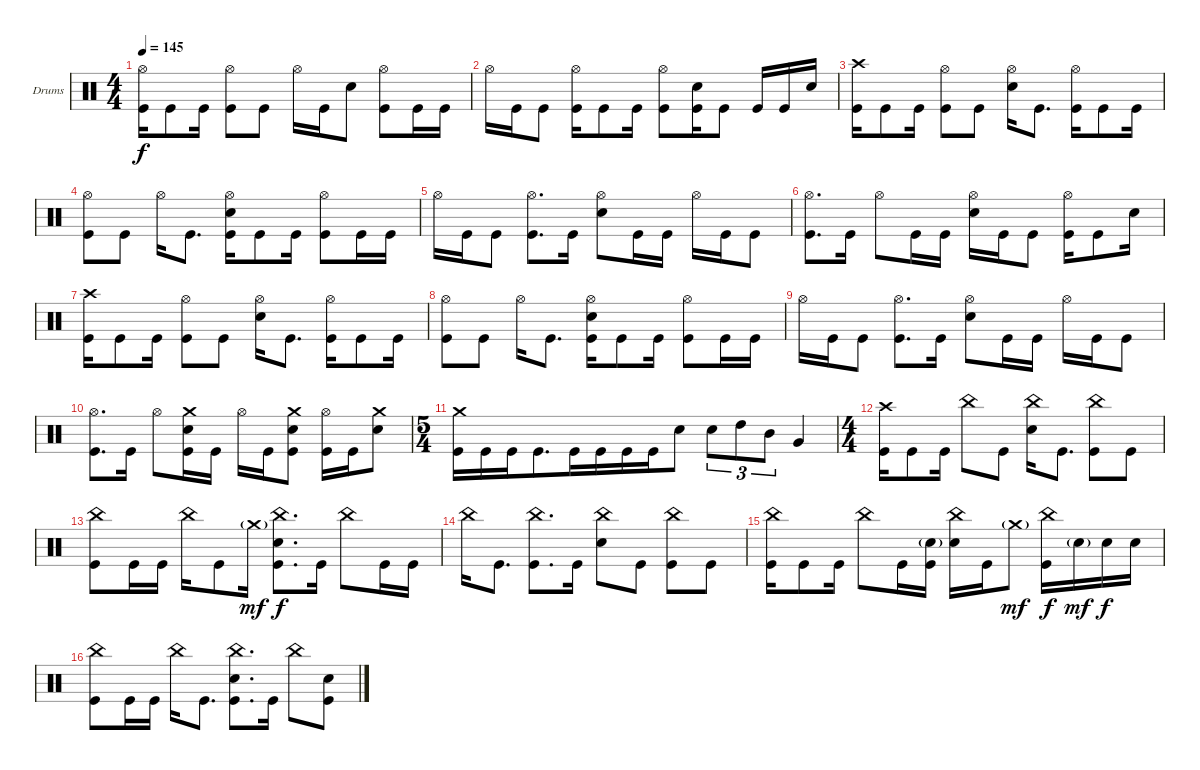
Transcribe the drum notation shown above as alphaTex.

\bracketExtendMode groupsimilarinstruments
\firstSystemTrackNameOrientation horizontal
\otherSystemsTrackNameOrientation horizontal
\track ("Drumkit" "Drums") {instrument percussion}
\staff {score}
\articulation defaults
\ts (4 4)
\tempo 145
\clef neutral
\ks c
("Hi-Hat (open)" "Kick (hit)").16{dy f} "Kick (hit)".8 "Kick (hit)".16 ("Hi-Hat (open)" "Kick (hit)").8 "Kick (hit)".8 "Hi-Hat (open)".16 "Kick (hit)".16 "Snare (hit) 2".8 ("Hi-Hat (open)" "Kick (hit)").8 "Kick (hit)".16 "Kick (hit)".16 |
"Hi-Hat (open)".16 "Kick (hit)".16 "Kick (hit)".8 ("Hi-Hat (open)" "Kick (hit)").16 "Kick (hit)".8 "Kick (hit)".16 ("Hi-Hat (open)" "Kick (hit)").8 ("Snare (hit) 2" "Kick (hit)").16 "Kick (hit)".8 "Kick (hit)".16 "Kick (hit)".16 "Snare (hit) 2".16 |
("Crash high (hit)" "Kick (hit)").16 "Kick (hit)".8 "Kick (hit)".16 ("Hi-Hat (open)" "Kick (hit)").8 "Kick (hit)".8 ("Hi-Hat (open)" "Snare (hit) 2").16 "Kick (hit)".8{d} ("Hi-Hat (open)" "Kick (hit)").16 "Kick (hit)".8 "Kick (hit)".16 |
("Hi-Hat (open)" "Kick (hit)").8 "Kick (hit)".8 "Hi-Hat (open)".16 "Kick (hit)".8{d} ("Hi-Hat (open)" "Snare (hit) 2" "Kick (hit)").16 "Kick (hit)".8 "Kick (hit)".16 ("Hi-Hat (open)" "Kick (hit)").8 "Kick (hit)".16 "Kick (hit)".16 |
"Hi-Hat (open)".16 "Kick (hit)".16 "Kick (hit)".8 ("Hi-Hat (open)" "Kick (hit)").8{d} "Kick (hit)".16 ("Hi-Hat (open)" "Snare (hit) 2").8 "Kick (hit)".16 "Kick (hit)".16 "Hi-Hat (open)".16 "Kick (hit)".16 "Kick (hit)".8 |
("Hi-Hat (open)" "Kick (hit)").8{d} "Kick (hit)".16 "Hi-Hat (open)".8 "Kick (hit)".16 "Kick (hit)".16 ("Hi-Hat (open)" "Snare (hit) 2").16 "Kick (hit)".16 "Kick (hit)".8 ("Hi-Hat (open)" "Kick (hit)").16 "Kick (hit)".8 "Snare (hit) 2".16 |
("Crash high (hit)" "Kick (hit)").16 "Kick (hit)".8 "Kick (hit)".16 ("Hi-Hat (open)" "Kick (hit)").8 "Kick (hit)".8 ("Hi-Hat (open)" "Snare (hit) 2").16 "Kick (hit)".8{d} ("Hi-Hat (open)" "Kick (hit)").16 "Kick (hit)".8 "Kick (hit)".16 |
("Hi-Hat (open)" "Kick (hit)").8 "Kick (hit)".8 "Hi-Hat (open)".16 "Kick (hit)".8{d} ("Hi-Hat (open)" "Snare (hit) 2" "Kick (hit)").16 "Kick (hit)".8 "Kick (hit)".16 ("Hi-Hat (open)" "Kick (hit)").8 "Kick (hit)".16 "Kick (hit)".16 |
"Hi-Hat (open)".16 "Kick (hit)".16 "Kick (hit)".8 ("Hi-Hat (open)" "Kick (hit)").8{d} "Kick (hit)".16 ("Hi-Hat (open)" "Snare (hit) 2").8 "Kick (hit)".16 "Kick (hit)".16 "Hi-Hat (open)".16 "Kick (hit)".16 "Kick (hit)".8 |
("Hi-Hat (open)" "Kick (hit)").8{d} "Kick (hit)".16 "Hi-Hat (open)".8 ("Crash medium (hit)" "Snare (hit) 2" "Kick (hit)").16 "Kick (hit)".16 "Hi-Hat (open)".16 "Kick (hit)".16 ("Crash medium (hit)" "Snare (hit) 2" "Kick (hit)").8 ("Hi-Hat (open)" "Kick (hit)").16 "Kick (hit)".16 ("Crash medium (hit)" "Snare (hit) 2").8 |
\ts (5 4)
\beaming (8 6 4)
("Crash medium (hit)" "Kick (hit)").16 "Kick (hit)".16 "Kick (hit)".16 "Kick (hit)".8{d} "Kick (hit)".16 "Kick (hit)".16 "Kick (hit)".16 "Kick (hit)".16 "Snare (hit) 2".8 "Snare (hit) 2".8{tu (3 2)} "High Tom (hit)".8{tu (3 2)} "Mid Tom (hit)".8{tu (3 2)} "Very Low Tom (hit)".4 |
\ts (4 4)
\beaming (8 2 2 2 2)
("Crash high (hit)" "Kick (hit)").16 "Kick (hit)".8 "Kick (hit)".16 "China (hit)".8 "Kick (hit)".8 ("China (hit)" "Snare (hit) 2").16 "Kick (hit)".8{d} ("China (hit)" "Kick (hit)").8 "Kick (hit)".8 |
("China (hit)" "Kick (hit)").8 "Kick (hit)".16 "Kick (hit)".16 "China (hit)".16 "Kick (hit)".8 "Crash medium (hit)"{g}.16{dy mf} ("China (hit)" "Snare (hit) 2" "Kick (hit)").8{d dy f} "Kick (hit)".16 "China (hit)".8 "Kick (hit)".16 "Kick (hit)".16 |
"China (hit)".16 "Kick (hit)".8{d} ("China (hit)" "Kick (hit)").8{d} "Kick (hit)".16 ("China (hit)" "Snare (hit) 2").8 "Kick (hit)".8 ("China (hit)" "Kick (hit)").8 "Kick (hit)".8 |
("China (hit)" "Kick (hit)").16 "Kick (hit)".8 "Kick (hit)".16 "China (hit)".8 "Kick (hit)".16 ("Snare (hit) 2"{g} "Kick (hit)").16 ("China (hit)" "Snare (hit) 2").16 "Kick (hit)".16 "Crash medium (hit)"{g}.8{dy mf} ("China (hit)" "Kick (hit)").16{dy f} "Snare (hit) 2"{g}.16{dy mf} "Snare (hit) 2".16{dy f} "Snare (hit) 2".16 |
("China (hit)" "Kick (hit)").8 "Kick (hit)".16 "Kick (hit)".16 "China (hit)".16 "Kick (hit)".8{d} ("China (hit)" "Snare (hit) 2" "Kick (hit)").8{d} "Kick (hit)".16 "China (hit)".8 ("Snare (hit) 2" "Kick (hit)").8
